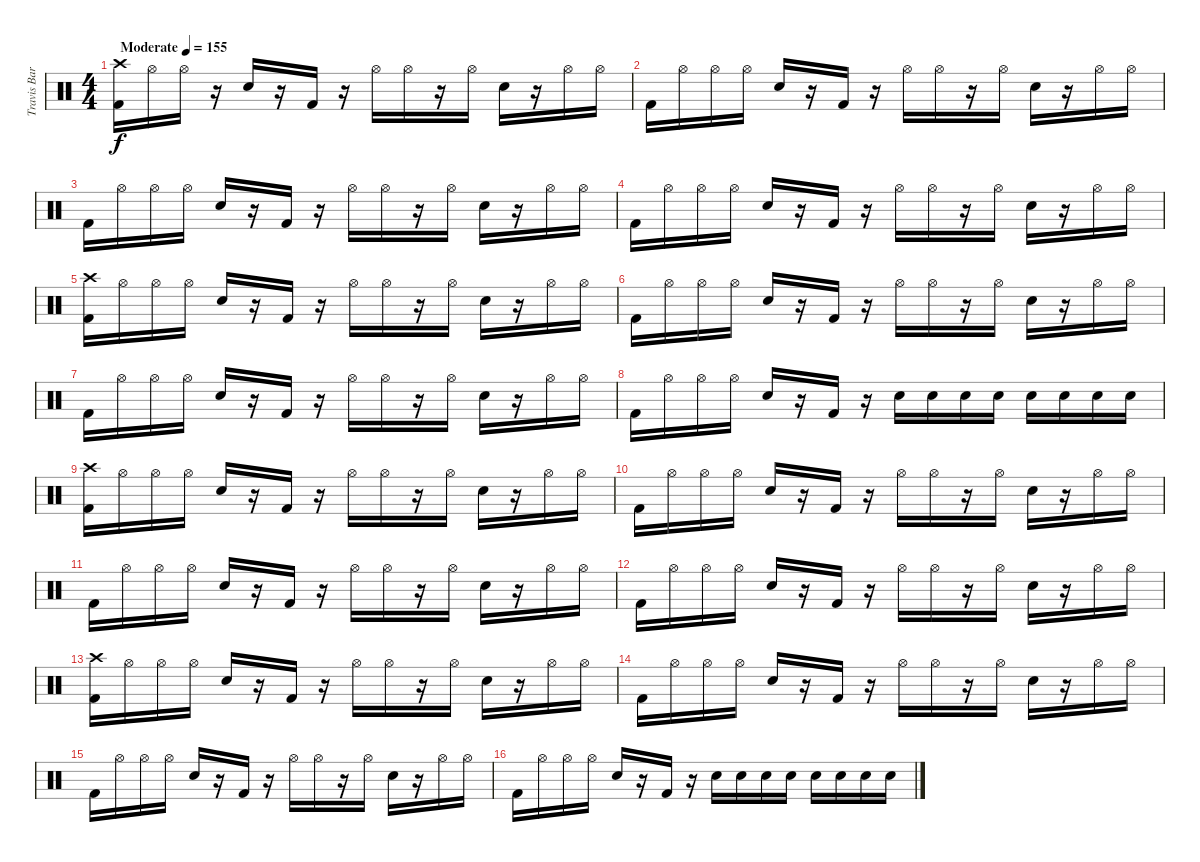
\track ("Travis Barker Drums" "Travis Bar") {instrument percussion}
\staff {score}
\articulation defaults
\ts (4 4)
\tempo (155 "Moderate")
\clef neutral
\ks c
("Crash high (hit)" "Kick (hit) 2").16{dy f} "Hi-Hat (open)".16 "Hi-Hat (open)".16 r.16 "Snare (hit) 2".16 r.16 "Kick (hit) 2".16 r.16 "Hi-Hat (open)".16 "Hi-Hat (open)".16 r.16 "Hi-Hat (open)".16 "Snare (hit) 2".16 r.16 "Hi-Hat (open)".16 "Hi-Hat (open)".16 |
"Kick (hit) 2".16 "Hi-Hat (open)".16 "Hi-Hat (open)".16 "Hi-Hat (open)".16 "Snare (hit) 2".16 r.16 "Kick (hit) 2".16 r.16 "Hi-Hat (open)".16 "Hi-Hat (open)".16 r.16 "Hi-Hat (open)".16 "Snare (hit) 2".16 r.16 "Hi-Hat (open)".16 "Hi-Hat (open)".16 |
"Kick (hit) 2".16 "Hi-Hat (open)".16 "Hi-Hat (open)".16 "Hi-Hat (open)".16 "Snare (hit) 2".16 r.16 "Kick (hit) 2".16 r.16 "Hi-Hat (open)".16 "Hi-Hat (open)".16 r.16 "Hi-Hat (open)".16 "Snare (hit) 2".16 r.16 "Hi-Hat (open)".16 "Hi-Hat (open)".16 |
"Kick (hit) 2".16 "Hi-Hat (open)".16 "Hi-Hat (open)".16 "Hi-Hat (open)".16 "Snare (hit) 2".16 r.16 "Kick (hit) 2".16 r.16 "Hi-Hat (open)".16 "Hi-Hat (open)".16 r.16 "Hi-Hat (open)".16 "Snare (hit) 2".16 r.16 "Hi-Hat (open)".16 "Hi-Hat (open)".16 |
("Crash high (hit)" "Kick (hit) 2").16 "Hi-Hat (open)".16 "Hi-Hat (open)".16 "Hi-Hat (open)".16 "Snare (hit) 2".16 r.16 "Kick (hit) 2".16 r.16 "Hi-Hat (open)".16 "Hi-Hat (open)".16 r.16 "Hi-Hat (open)".16 "Snare (hit) 2".16 r.16 "Hi-Hat (open)".16 "Hi-Hat (open)".16 |
"Kick (hit) 2".16 "Hi-Hat (open)".16 "Hi-Hat (open)".16 "Hi-Hat (open)".16 "Snare (hit) 2".16 r.16 "Kick (hit) 2".16 r.16 "Hi-Hat (open)".16 "Hi-Hat (open)".16 r.16 "Hi-Hat (open)".16 "Snare (hit) 2".16 r.16 "Hi-Hat (open)".16 "Hi-Hat (open)".16 |
"Kick (hit) 2".16 "Hi-Hat (open)".16 "Hi-Hat (open)".16 "Hi-Hat (open)".16 "Snare (hit) 2".16 r.16 "Kick (hit) 2".16 r.16 "Hi-Hat (open)".16 "Hi-Hat (open)".16 r.16 "Hi-Hat (open)".16 "Snare (hit) 2".16 r.16 "Hi-Hat (open)".16 "Hi-Hat (open)".16 |
"Kick (hit) 2".16 "Hi-Hat (open)".16 "Hi-Hat (open)".16 "Hi-Hat (open)".16 "Snare (hit) 2".16 r.16 "Kick (hit) 2".16 r.16 "Snare (hit) 2".16 "Snare (hit) 2".16 "Snare (hit) 2".16 "Snare (hit) 2".16 "Snare (hit) 2".16 "Snare (hit) 2".16 "Snare (hit) 2".16 "Snare (hit) 2".16 |
("Crash high (hit)" "Kick (hit) 2").16 "Hi-Hat (open)".16 "Hi-Hat (open)".16 "Hi-Hat (open)".16 "Snare (hit) 2".16 r.16 "Kick (hit) 2".16 r.16 "Hi-Hat (open)".16 "Hi-Hat (open)".16 r.16 "Hi-Hat (open)".16 "Snare (hit) 2".16 r.16 "Hi-Hat (open)".16 "Hi-Hat (open)".16 |
"Kick (hit) 2".16 "Hi-Hat (open)".16 "Hi-Hat (open)".16 "Hi-Hat (open)".16 "Snare (hit) 2".16 r.16 "Kick (hit) 2".16 r.16 "Hi-Hat (open)".16 "Hi-Hat (open)".16 r.16 "Hi-Hat (open)".16 "Snare (hit) 2".16 r.16 "Hi-Hat (open)".16 "Hi-Hat (open)".16 |
"Kick (hit) 2".16 "Hi-Hat (open)".16 "Hi-Hat (open)".16 "Hi-Hat (open)".16 "Snare (hit) 2".16 r.16 "Kick (hit) 2".16 r.16 "Hi-Hat (open)".16 "Hi-Hat (open)".16 r.16 "Hi-Hat (open)".16 "Snare (hit) 2".16 r.16 "Hi-Hat (open)".16 "Hi-Hat (open)".16 |
"Kick (hit) 2".16 "Hi-Hat (open)".16 "Hi-Hat (open)".16 "Hi-Hat (open)".16 "Snare (hit) 2".16 r.16 "Kick (hit) 2".16 r.16 "Hi-Hat (open)".16 "Hi-Hat (open)".16 r.16 "Hi-Hat (open)".16 "Snare (hit) 2".16 r.16 "Hi-Hat (open)".16 "Hi-Hat (open)".16 |
("Crash high (hit)" "Kick (hit) 2").16 "Hi-Hat (open)".16 "Hi-Hat (open)".16 "Hi-Hat (open)".16 "Snare (hit) 2".16 r.16 "Kick (hit) 2".16 r.16 "Hi-Hat (open)".16 "Hi-Hat (open)".16 r.16 "Hi-Hat (open)".16 "Snare (hit) 2".16 r.16 "Hi-Hat (open)".16 "Hi-Hat (open)".16 |
"Kick (hit) 2".16 "Hi-Hat (open)".16 "Hi-Hat (open)".16 "Hi-Hat (open)".16 "Snare (hit) 2".16 r.16 "Kick (hit) 2".16 r.16 "Hi-Hat (open)".16 "Hi-Hat (open)".16 r.16 "Hi-Hat (open)".16 "Snare (hit) 2".16 r.16 "Hi-Hat (open)".16 "Hi-Hat (open)".16 |
"Kick (hit) 2".16 "Hi-Hat (open)".16 "Hi-Hat (open)".16 "Hi-Hat (open)".16 "Snare (hit) 2".16 r.16 "Kick (hit) 2".16 r.16 "Hi-Hat (open)".16 "Hi-Hat (open)".16 r.16 "Hi-Hat (open)".16 "Snare (hit) 2".16 r.16 "Hi-Hat (open)".16 "Hi-Hat (open)".16 |
"Kick (hit) 2".16 "Hi-Hat (open)".16 "Hi-Hat (open)".16 "Hi-Hat (open)".16 "Snare (hit) 2".16 r.16 "Kick (hit) 2".16 r.16 "Snare (hit) 2".16 "Snare (hit) 2".16 "Snare (hit) 2".16 "Snare (hit) 2".16 "Snare (hit) 2".16 "Snare (hit) 2".16 "Snare (hit) 2".16 "Snare (hit) 2".16
